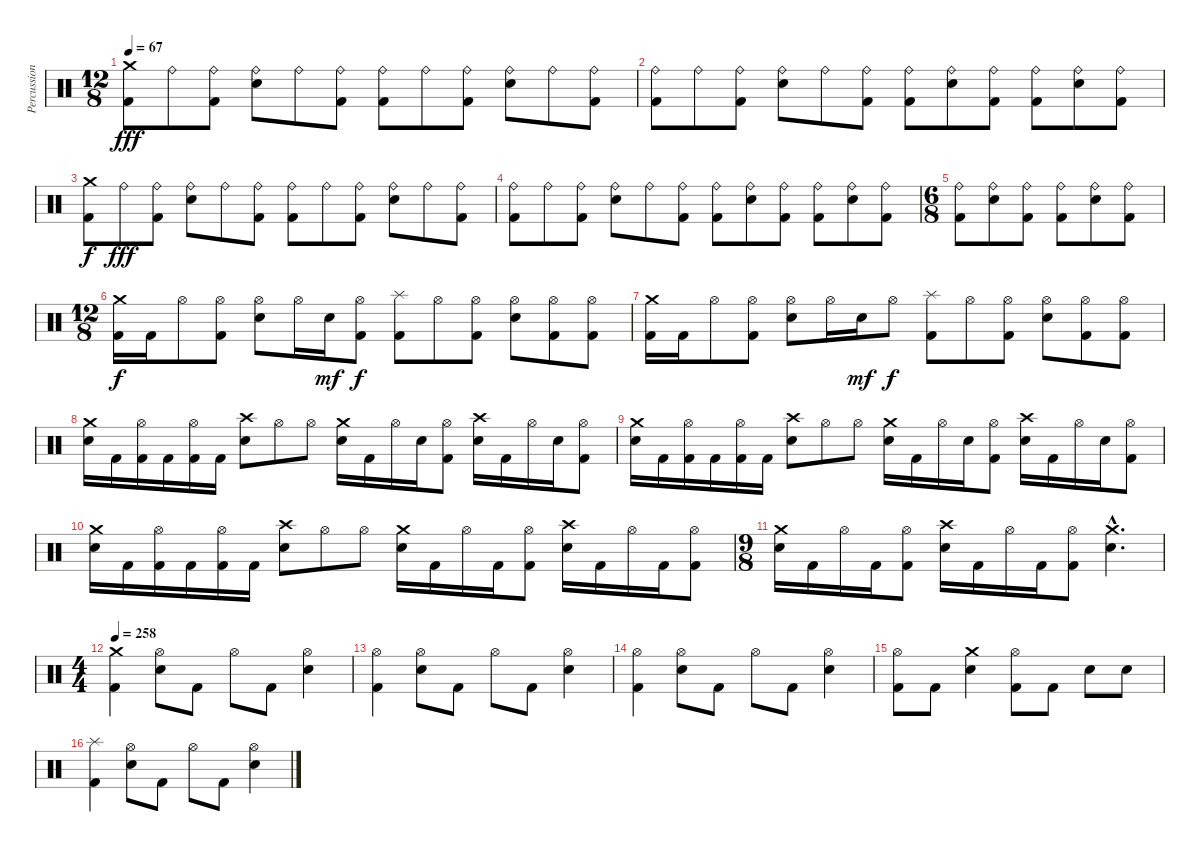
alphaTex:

\track ("Percussions" "Percussion") {instrument percussion}
\staff {score}
\articulation defaults
\ts (12 8)
\tempo 67
\clef neutral
\ks c
("Kick (hit) 2" "Crash medium (hit)").8{dy fff} "Ride (bell)".8 ("Kick (hit) 2" "Ride (bell)").8 ("Electric Snare (hit)" "Ride (bell)").8 "Ride (bell)".8 ("Kick (hit) 2" "Ride (bell)").8 ("Kick (hit) 2" "Ride (bell)").8 "Ride (bell)".8 ("Kick (hit) 2" "Ride (bell)").8 ("Electric Snare (hit)" "Ride (bell)").8 "Ride (bell)".8 ("Kick (hit) 2" "Ride (bell)").8 |
("Kick (hit) 2" "Ride (bell)").8 "Ride (bell)".8 ("Kick (hit) 2" "Ride (bell)").8 ("Electric Snare (hit)" "Ride (bell)").8 "Ride (bell)".8 ("Kick (hit) 2" "Ride (bell)").8 ("Kick (hit) 2" "Ride (bell)").8 ("Electric Snare (hit)" "Ride (bell)").8 ("Kick (hit) 2" "Ride (bell)").8 ("Kick (hit) 2" "Ride (bell)").8 ("Electric Snare (hit)" "Ride (bell)").8 ("Kick (hit) 2" "Ride (bell)").8 |
("Kick (hit) 2" "Crash medium (hit)").8{dy f} "Ride (bell)".8{dy fff} ("Kick (hit) 2" "Ride (bell)").8 ("Electric Snare (hit)" "Ride (bell)").8 "Ride (bell)".8 ("Kick (hit) 2" "Ride (bell)").8 ("Kick (hit) 2" "Ride (bell)").8 "Ride (bell)".8 ("Kick (hit) 2" "Ride (bell)").8 ("Electric Snare (hit)" "Ride (bell)").8 "Ride (bell)".8 ("Kick (hit) 2" "Ride (bell)").8 |
("Kick (hit) 2" "Ride (bell)").8 "Ride (bell)".8 ("Kick (hit) 2" "Ride (bell)").8 ("Electric Snare (hit)" "Ride (bell)").8 "Ride (bell)".8 ("Kick (hit) 2" "Ride (bell)").8 ("Kick (hit) 2" "Ride (bell)").8 ("Electric Snare (hit)" "Ride (bell)").8 ("Kick (hit) 2" "Ride (bell)").8 ("Kick (hit) 2" "Ride (bell)").8 ("Electric Snare (hit)" "Ride (bell)").8 ("Kick (hit) 2" "Ride (bell)").8 |
\ts (6 8)
("Kick (hit) 2" "Ride (bell)").8 ("Electric Snare (hit)" "Ride (bell)").8 ("Kick (hit) 2" "Ride (bell)").8 ("Kick (hit) 2" "Ride (bell)").8 ("Electric Snare (hit)" "Ride (bell)").8 ("Kick (hit) 2" "Ride (bell)").8 |
\ts (12 8)
("Kick (hit) 2" "Crash medium (hit)").16{dy f} "Kick (hit) 2".16 "Hi-Hat (open)".8 ("Kick (hit) 2" "Hi-Hat (open)").8 ("Electric Snare (hit)" "Hi-Hat (open)").8 "Hi-Hat (open)".16 "Electric Snare (hit)".16{dy mf} ("Kick (hit) 2" "Hi-Hat (open)").8{dy f} ("Kick (hit) 2" "Splash (hit)").8 "Hi-Hat (open)".8 ("Kick (hit) 2" "Hi-Hat (open)").8 ("Electric Snare (hit)" "Hi-Hat (open)").8 ("Kick (hit) 2" "Hi-Hat (open)").8 ("Kick (hit) 2" "Hi-Hat (open)").8 |
("Kick (hit) 2" "Crash medium (hit)").16 "Kick (hit) 2".16 "Hi-Hat (open)".8 ("Kick (hit) 2" "Hi-Hat (open)").8 ("Electric Snare (hit)" "Hi-Hat (open)").8 "Hi-Hat (open)".16 "Electric Snare (hit)".16{dy mf} "Hi-Hat (open)".8{dy f} ("Kick (hit) 2" "Splash (hit)").8 "Hi-Hat (open)".8 ("Kick (hit) 2" "Hi-Hat (open)").8 ("Electric Snare (hit)" "Hi-Hat (open)").8 ("Kick (hit) 2" "Hi-Hat (open)").8 ("Kick (hit) 2" "Hi-Hat (open)").8 |
("Electric Snare (hit)" "Crash medium (hit)").16 "Kick (hit) 2".16 ("Kick (hit) 2" "Hi-Hat (open)").16 "Kick (hit) 2".16 ("Kick (hit) 2" "Hi-Hat (open)").16 "Kick (hit) 2".16 ("Electric Snare (hit)" "Crash high (hit)").8 "Hi-Hat (open)".8 "Hi-Hat (open)".8 ("Electric Snare (hit)" "Crash medium (hit)").16 "Kick (hit) 2".16 "Hi-Hat (open)".16 "Electric Snare (hit)".16 ("Kick (hit) 2" "Hi-Hat (open)").8 ("Electric Snare (hit)" "Crash high (hit)").16 "Kick (hit) 2".16 "Hi-Hat (open)".16 "Electric Snare (hit)".16 ("Kick (hit) 2" "Hi-Hat (open)").8 |
("Electric Snare (hit)" "Crash medium (hit)").16 "Kick (hit) 2".16 ("Kick (hit) 2" "Hi-Hat (open)").16 "Kick (hit) 2".16 ("Kick (hit) 2" "Hi-Hat (open)").16 "Kick (hit) 2".16 ("Electric Snare (hit)" "Crash high (hit)").8 "Hi-Hat (open)".8 "Hi-Hat (open)".8 ("Electric Snare (hit)" "Crash medium (hit)").16 "Kick (hit) 2".16 "Hi-Hat (open)".16 "Electric Snare (hit)".16 ("Kick (hit) 2" "Hi-Hat (open)").8 ("Electric Snare (hit)" "Crash high (hit)").16 "Kick (hit) 2".16 "Hi-Hat (open)".16 "Electric Snare (hit)".16 ("Kick (hit) 2" "Hi-Hat (open)").8 |
("Electric Snare (hit)" "Crash medium (hit)").16 "Kick (hit) 2".16 ("Kick (hit) 2" "Hi-Hat (open)").16 "Kick (hit) 2".16 ("Kick (hit) 2" "Hi-Hat (open)").16 "Kick (hit) 2".16 ("Electric Snare (hit)" "Crash high (hit)").8 "Hi-Hat (open)".8 "Hi-Hat (open)".8 ("Electric Snare (hit)" "Crash medium (hit)").16 "Kick (hit) 2".16 "Hi-Hat (open)".16 "Kick (hit) 2".16 ("Kick (hit) 2" "Hi-Hat (open)").8 ("Electric Snare (hit)" "Crash high (hit)").16 "Kick (hit) 2".16 "Hi-Hat (open)".16 "Kick (hit) 2".16 ("Kick (hit) 2" "Hi-Hat (open)").8 |
\ts (9 8)
("Electric Snare (hit)" "Crash medium (hit)").16 "Kick (hit) 2".16 "Hi-Hat (open)".16 "Kick (hit) 2".16 ("Kick (hit) 2" "Hi-Hat (open)").8 ("Electric Snare (hit)" "Crash high (hit)").16 "Kick (hit) 2".16 "Hi-Hat (open)".16 "Kick (hit) 2".16 ("Kick (hit) 2" "Hi-Hat (open)").8 ("Electric Snare (hit)"{hac} "Crash medium (hit)"{hac}).4{d} |
\ts (4 4)
\tempo 218
\tempo 258
("Kick (hit) 2" "Crash medium (hit)").4 ("Electric Snare (hit)" "Hi-Hat (open)").8 "Kick (hit) 2".8 "Hi-Hat (open)".8 "Kick (hit) 2".8 ("Electric Snare (hit)" "Hi-Hat (open)").4 |
("Kick (hit) 2" "Hi-Hat (open)").4 ("Electric Snare (hit)" "Hi-Hat (open)").8 "Kick (hit) 2".8 "Hi-Hat (open)".8 "Kick (hit) 2".8 ("Electric Snare (hit)" "Hi-Hat (open)").4 |
("Kick (hit) 2" "Hi-Hat (open)").4 ("Electric Snare (hit)" "Hi-Hat (open)").8 "Kick (hit) 2".8 "Hi-Hat (open)".8 "Kick (hit) 2".8 ("Electric Snare (hit)" "Hi-Hat (open)").4 |
("Kick (hit) 2" "Hi-Hat (open)").8 "Kick (hit) 2".8 ("Electric Snare (hit)" "Crash medium (hit)").4 ("Kick (hit) 2" "Hi-Hat (open)").8 "Kick (hit) 2".8 "Electric Snare (hit)".8 "Electric Snare (hit)".8 |
("Kick (hit) 2" "Splash (hit)").4 ("Electric Snare (hit)" "Hi-Hat (open)").8 "Kick (hit) 2".8 "Hi-Hat (open)".8 "Kick (hit) 2".8 ("Electric Snare (hit)" "Hi-Hat (open)").4
